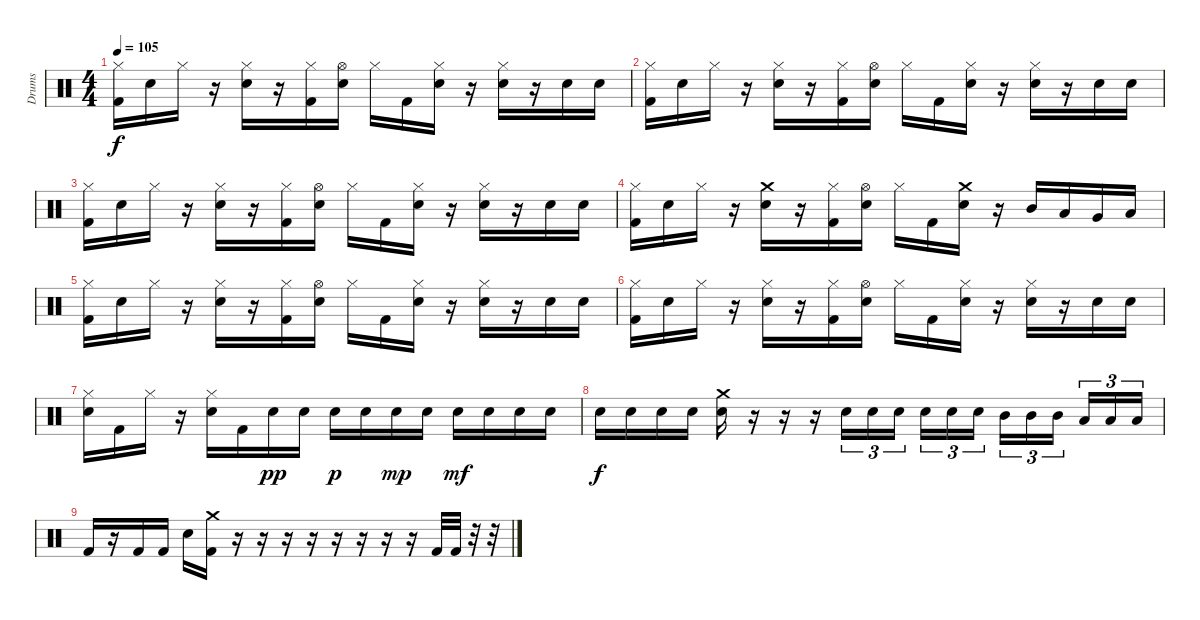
\track ("Drums" "Drums") {instrument percussion}
\staff {score}
\articulation defaults
\ts (4 4)
\tempo 105
\clef neutral
\ks c
("Hi-Hat (closed)" "Kick (hit) 2").16{dy f} "Snare (hit) 2".16 "Hi-Hat (closed)".16 r.16 ("Hi-Hat (closed)" "Snare (hit) 2").16 r.16 ("Hi-Hat (closed)" "Kick (hit) 2").16 ("Hi-Hat (open)" "Snare (hit) 2").16 "Hi-Hat (closed)".16 "Kick (hit) 2".16 ("Hi-Hat (closed)" "Snare (hit) 2").16 r.16 ("Hi-Hat (closed)" "Snare (hit) 2").16 r.16 "Snare (hit) 2".16 "Snare (hit) 2".16 |
("Hi-Hat (closed)" "Kick (hit) 2").16 "Snare (hit) 2".16 "Hi-Hat (closed)".16 r.16 ("Hi-Hat (closed)" "Snare (hit) 2").16 r.16 ("Hi-Hat (closed)" "Kick (hit) 2").16 ("Hi-Hat (open)" "Snare (hit) 2").16 "Hi-Hat (closed)".16 "Kick (hit) 2".16 ("Hi-Hat (closed)" "Snare (hit) 2").16 r.16 ("Hi-Hat (closed)" "Snare (hit) 2").16 r.16 "Snare (hit) 2".16 "Snare (hit) 2".16 |
("Hi-Hat (closed)" "Kick (hit) 2").16 "Snare (hit) 2".16 "Hi-Hat (closed)".16 r.16 ("Hi-Hat (closed)" "Snare (hit) 2").16 r.16 ("Hi-Hat (closed)" "Kick (hit) 2").16 ("Hi-Hat (open)" "Snare (hit) 2").16 "Hi-Hat (closed)".16 "Kick (hit) 2".16 ("Hi-Hat (closed)" "Snare (hit) 2").16 r.16 ("Hi-Hat (closed)" "Snare (hit) 2").16 r.16 "Snare (hit) 2".16 "Snare (hit) 2".16 |
("Hi-Hat (closed)" "Kick (hit) 2").16 "Snare (hit) 2".16 "Hi-Hat (closed)".16 r.16 ("Crash medium (hit)" "Snare (hit) 2").16 r.16 ("Hi-Hat (closed)" "Kick (hit) 2").16 ("Hi-Hat (open)" "Snare (hit) 2").16 "Hi-Hat (closed)".16 "Kick (hit) 2".16 ("Crash medium (hit)" "Snare (hit) 2").16 r.16 "Mid Tom (hit)".16 "Low Tom (hit)".16 "Very Low Tom (hit)".16 "Low Floor Tom (hit)".16 |
("Hi-Hat (closed)" "Kick (hit) 2").16 "Snare (hit) 2".16 "Hi-Hat (closed)".16 r.16 ("Hi-Hat (closed)" "Snare (hit) 2").16 r.16 ("Hi-Hat (closed)" "Kick (hit) 2").16 ("Hi-Hat (open)" "Snare (hit) 2").16 "Hi-Hat (closed)".16 "Kick (hit) 2".16 ("Hi-Hat (closed)" "Snare (hit) 2").16 r.16 ("Hi-Hat (closed)" "Snare (hit) 2").16 r.16 "Snare (hit) 2".16 "Snare (hit) 2".16 |
("Hi-Hat (closed)" "Kick (hit) 2").16 "Snare (hit) 2".16 "Hi-Hat (closed)".16 r.16 ("Hi-Hat (closed)" "Snare (hit) 2").16 r.16 ("Hi-Hat (closed)" "Kick (hit) 2").16 ("Hi-Hat (open)" "Snare (hit) 2").16 "Hi-Hat (closed)".16 "Kick (hit) 2".16 ("Hi-Hat (closed)" "Snare (hit) 2").16 r.16 ("Hi-Hat (closed)" "Snare (hit) 2").16 r.16 "Snare (hit) 2".16 "Snare (hit) 2".16 |
("Hi-Hat (closed)" "Snare (hit) 2").16 "Kick (hit) 2".16 "Hi-Hat (closed)".16 r.16 ("Hi-Hat (closed)" "Snare (hit) 2").16 "Kick (hit) 2".16 "Snare (hit) 2".16{dy pp} "Snare (hit) 2".16 "Snare (hit) 2".16{dy p} "Snare (hit) 2".16 "Snare (hit) 2".16{dy mp} "Snare (hit) 2".16 "Snare (hit) 2".16{dy mf} "Snare (hit) 2".16 "Snare (hit) 2".16 "Snare (hit) 2".16 |
"Snare (hit) 2".16{dy f} "Snare (hit) 2".16 "Snare (hit) 2".16 "Snare (hit) 2".16 ("Crash medium (hit)" "Snare (hit) 2").16 r.16 r.16 r.16 "Snare (hit) 2".16{tu (3 2)} "Snare (hit) 2".16{tu (3 2)} "Snare (hit) 2".16{tu (3 2)} "Snare (hit) 2".16{tu (3 2)} "Snare (hit) 2".16{tu (3 2)} "Snare (hit) 2".16{tu (3 2)} "Mid Tom (hit)".16{tu (3 2)} "Mid Tom (hit)".16{tu (3 2)} "Mid Tom (hit)".16{tu (3 2)} "Low Tom (hit)".16{tu (3 2)} "Low Tom (hit)".16{tu (3 2)} "Low Tom (hit)".16{tu (3 2)} |
"Kick (hit) 2".16 r.16 "Kick (hit) 2".16 "Kick (hit) 2".16 "Snare (hit) 2".16 ("Crash medium (hit)" "Kick (hit) 2").16 r.16 r.16 r.16 r.16 r.16 r.16 r.16 r.16 "Kick (hit) 2".32 "Kick (hit) 2".32 r.32 r.32
